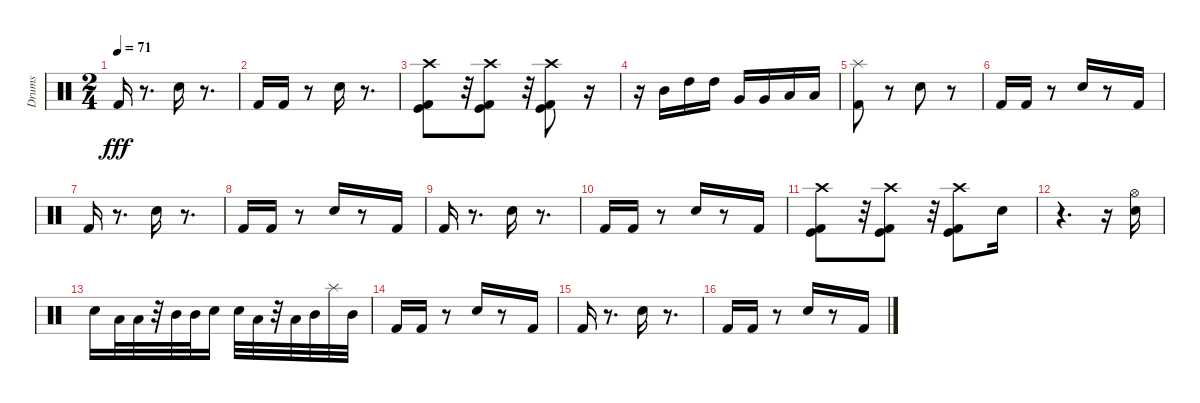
\track ("Drums" "Drums") {instrument percussion}
\staff {score}
\articulation defaults
\ts (2 4)
\tempo 71
\clef neutral
\ks c "Kick (hit) 2".16{dy fff}
r.8{d} "Electric Snare (hit)".16 r.8{d} |
"Kick (hit) 2".16 "Kick (hit) 2".16 r.8 "Electric Snare (hit)".16 r.8{d} |
("Kick (hit)" "Kick (hit) 2" "Crash high (hit)").8 r.32 ("Kick (hit)" "Kick (hit) 2" "Crash high (hit)").8 r.32 ("Kick (hit)" "Kick (hit) 2" "Crash high (hit)").8 r.16 |
r.16 "Mid Tom (hit)".16 "High Tom (hit)".16 "High Tom (hit)".16 "Very Low Tom (hit)".16 "Very Low Tom (hit)".16 "Low Tom (hit)".16 "Low Tom (hit)".16 |
("Splash (hit)" "Kick (hit) 2").8 r.8 "Electric Snare (hit)".8 r.8 |
"Kick (hit) 2".16 "Kick (hit) 2".16 r.8 "Snare (hit) 2".16 r.8 "Kick (hit) 2".16 |
"Kick (hit) 2".16 r.8{d} "Snare (hit) 2".16 r.8{d} |
"Kick (hit) 2".16 "Kick (hit) 2".16 r.8 "Snare (hit) 2".16 r.8 "Kick (hit) 2".16 |
"Kick (hit) 2".16 r.8{d} "Snare (hit) 2".16 r.8{d} |
"Kick (hit) 2".16 "Kick (hit) 2".16 r.8 "Snare (hit) 2".16 r.8 "Kick (hit) 2".16 |
("Kick (hit)" "Kick (hit) 2" "Crash high (hit)").8 r.32 ("Kick (hit)" "Kick (hit) 2" "Crash high (hit)").8 r.32 ("Kick (hit)" "Kick (hit) 2" "Crash high (hit)").8 "Electric Snare (hit)".16 |
r.4{d} r.16 ("Hi-Hat (open)" "Snare (hit) 2").16 |
"Snare (hit) 2".16 "Low Tom (hit)".32 "Low Floor Tom (hit)".32 r.32 "Mid Tom (hit)".32 "Mid Tom (hit)".32 "Snare (hit) 2".16 "Snare (hit) 2".32 "Low Tom (hit)".32 r.32 "Low Floor Tom (hit)".32 "Mid Tom (hit)".32 "Splash (hit)".32 "Mid Tom (hit)".32 |
"Kick (hit) 2".16 "Kick (hit) 2".16 r.8 "Snare (hit) 2".16 r.8 "Kick (hit) 2".16 |
"Kick (hit) 2".16 r.8{d} "Snare (hit) 2".16 r.8{d} |
"Kick (hit) 2".16 "Kick (hit) 2".16 r.8 "Snare (hit) 2".16 r.8 "Kick (hit) 2".16
